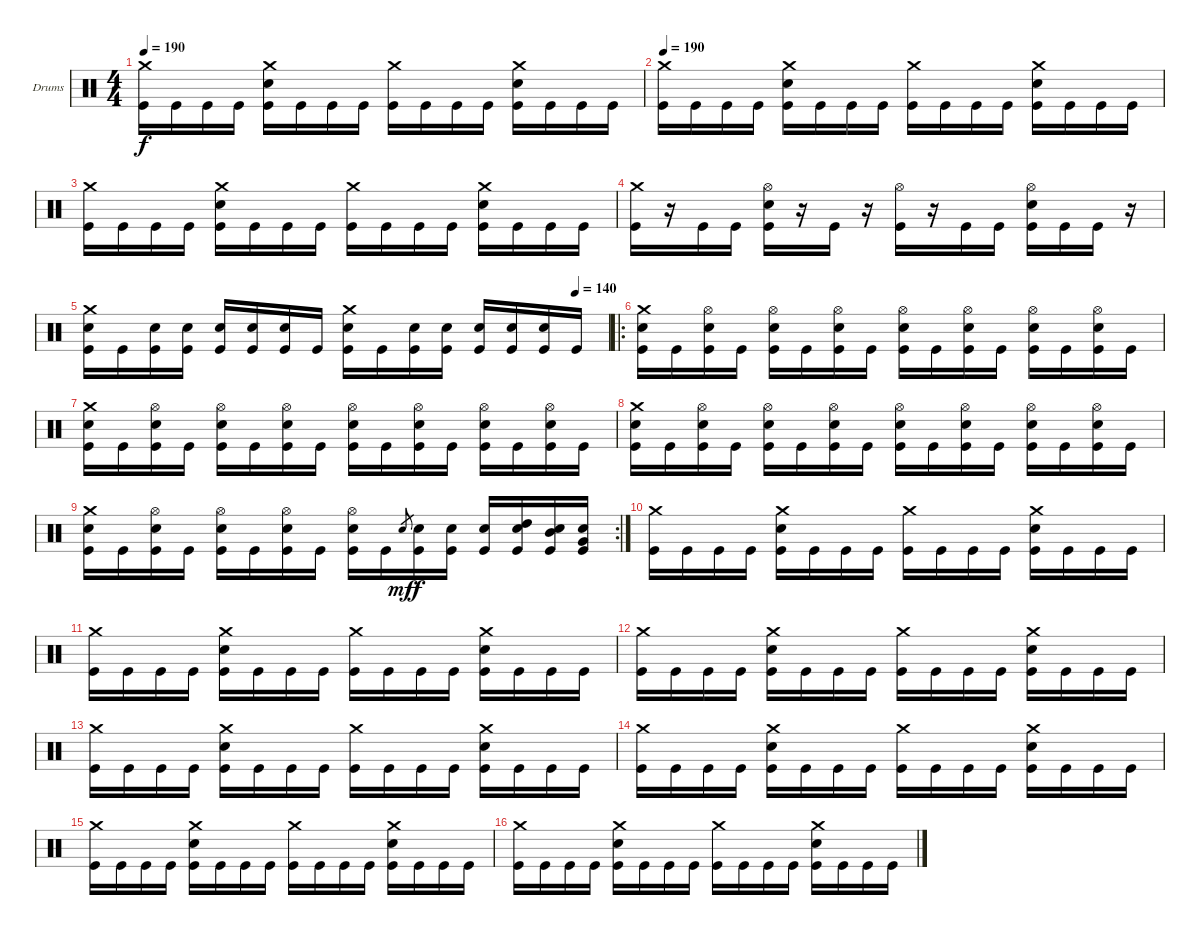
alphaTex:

\bracketExtendMode groupsimilarinstruments
\firstSystemTrackNameOrientation horizontal
\otherSystemsTrackNameOrientation horizontal
\track ("Drumkit" "Drums") {instrument percussion}
\staff {score}
\articulation defaults
\ts (4 4)
\tempo 190
\clef neutral
\ks c
("Crash medium (hit)" "Kick (hit)").16{dy f} "Kick (hit)".16 "Kick (hit)".16 "Kick (hit)".16 ("Crash medium (hit)" "Snare (hit) 2" "Kick (hit)").16 "Kick (hit)".16 "Kick (hit)".16 "Kick (hit)".16 ("Crash medium (hit)" "Kick (hit)").16 "Kick (hit)".16 "Kick (hit)".16 "Kick (hit)".16 ("Crash medium (hit)" "Snare (hit) 2" "Kick (hit)").16 "Kick (hit)".16 "Kick (hit)".16 "Kick (hit)".16 |
\tempo 190
("Crash medium (hit)" "Kick (hit)").16 "Kick (hit)".16 "Kick (hit)".16 "Kick (hit)".16 ("Crash medium (hit)" "Snare (hit) 2" "Kick (hit)").16 "Kick (hit)".16 "Kick (hit)".16 "Kick (hit)".16 ("Crash medium (hit)" "Kick (hit)").16 "Kick (hit)".16 "Kick (hit)".16 "Kick (hit)".16 ("Crash medium (hit)" "Snare (hit) 2" "Kick (hit)").16 "Kick (hit)".16 "Kick (hit)".16 "Kick (hit)".16 |
("Crash medium (hit)" "Kick (hit)").16 "Kick (hit)".16 "Kick (hit)".16 "Kick (hit)".16 ("Crash medium (hit)" "Snare (hit) 2" "Kick (hit)").16 "Kick (hit)".16 "Kick (hit)".16 "Kick (hit)".16 ("Crash medium (hit)" "Kick (hit)").16 "Kick (hit)".16 "Kick (hit)".16 "Kick (hit)".16 ("Crash medium (hit)" "Snare (hit) 2" "Kick (hit)").16 "Kick (hit)".16 "Kick (hit)".16 "Kick (hit)".16 |
("Crash medium (hit)" "Kick (hit)").16 r.16 "Kick (hit)".16 "Kick (hit)".16 ("Hi-Hat (open)" "Snare (hit) 2" "Kick (hit)").16 r.16 "Kick (hit)".16 r.16 ("Hi-Hat (open)" "Kick (hit)").16 r.16 "Kick (hit)".16 "Kick (hit)".16 ("Hi-Hat (open)" "Snare (hit) 2" "Kick (hit)").16 "Kick (hit)".16 "Kick (hit)".16 r.16 |
\tempo (140 0.9375)
("Crash medium (hit)" "Snare (hit) 2" "Kick (hit)").16 "Kick (hit)".16 ("Snare (hit) 2" "Kick (hit)").16 ("Snare (hit) 2" "Kick (hit)").16 ("Snare (hit) 2" "Kick (hit)").16 ("Snare (hit) 2" "Kick (hit)").16 ("Snare (hit) 2" "Kick (hit)").16 "Kick (hit)".16 ("Crash medium (hit)" "Snare (hit) 2" "Kick (hit)").16 "Kick (hit)".16 ("Snare (hit) 2" "Kick (hit)").16 ("Snare (hit) 2" "Kick (hit)").16 ("Snare (hit) 2" "Kick (hit)").16 ("Snare (hit) 2" "Kick (hit)").16 ("Snare (hit) 2" "Kick (hit)").16 "Kick (hit)".16 |
\ro
("Crash medium (hit)" "Snare (hit) 2" "Kick (hit)").16 "Kick (hit)".16 ("Hi-Hat (open)" "Snare (hit) 2" "Kick (hit)").16 "Kick (hit)".16 ("Hi-Hat (open)" "Snare (hit) 2" "Kick (hit)").16 "Kick (hit)".16 ("Hi-Hat (open)" "Snare (hit) 2" "Kick (hit)").16 "Kick (hit)".16 ("Hi-Hat (open)" "Snare (hit) 2" "Kick (hit)").16 "Kick (hit)".16 ("Hi-Hat (open)" "Snare (hit) 2" "Kick (hit)").16 "Kick (hit)".16 ("Hi-Hat (open)" "Snare (hit) 2" "Kick (hit)").16 "Kick (hit)".16 ("Hi-Hat (open)" "Snare (hit) 2" "Kick (hit)").16 "Kick (hit)".16 |
("Crash medium (hit)" "Snare (hit) 2" "Kick (hit)").16 "Kick (hit)".16 ("Hi-Hat (open)" "Snare (hit) 2" "Kick (hit)").16 "Kick (hit)".16 ("Hi-Hat (open)" "Snare (hit) 2" "Kick (hit)").16 "Kick (hit)".16 ("Hi-Hat (open)" "Snare (hit) 2" "Kick (hit)").16 "Kick (hit)".16 ("Hi-Hat (open)" "Snare (hit) 2" "Kick (hit)").16 "Kick (hit)".16 ("Hi-Hat (open)" "Snare (hit) 2" "Kick (hit)").16 "Kick (hit)".16 ("Hi-Hat (open)" "Snare (hit) 2" "Kick (hit)").16 "Kick (hit)".16 ("Hi-Hat (open)" "Snare (hit) 2" "Kick (hit)").16 "Kick (hit)".16 |
("Crash medium (hit)" "Snare (hit) 2" "Kick (hit)").16 "Kick (hit)".16 ("Hi-Hat (open)" "Snare (hit) 2" "Kick (hit)").16 "Kick (hit)".16 ("Hi-Hat (open)" "Snare (hit) 2" "Kick (hit)").16 "Kick (hit)".16 ("Hi-Hat (open)" "Snare (hit) 2" "Kick (hit)").16 "Kick (hit)".16 ("Hi-Hat (open)" "Snare (hit) 2" "Kick (hit)").16 "Kick (hit)".16 ("Hi-Hat (open)" "Snare (hit) 2" "Kick (hit)").16 "Kick (hit)".16 ("Hi-Hat (open)" "Snare (hit) 2" "Kick (hit)").16 "Kick (hit)".16 ("Hi-Hat (open)" "Snare (hit) 2" "Kick (hit)").16 "Kick (hit)".16 |
\rc 2
("Crash medium (hit)" "Snare (hit) 2" "Kick (hit)").16 "Kick (hit)".16 ("Hi-Hat (open)" "Snare (hit) 2" "Kick (hit)").16 "Kick (hit)".16 ("Hi-Hat (open)" "Snare (hit) 2" "Kick (hit)").16 "Kick (hit)".16 ("Hi-Hat (open)" "Snare (hit) 2" "Kick (hit)").16 "Kick (hit)".16 ("Hi-Hat (open)" "Snare (hit) 2" "Kick (hit)").16 "Kick (hit)".16 "Snare (hit) 2".8{gr dy mf} ("Snare (hit) 2" "Kick (hit)").16{dy f} ("Snare (hit) 2" "Kick (hit)").16 ("Snare (hit) 2" "Kick (hit)").16 ("Snare (hit) 2" "High Tom (hit)" "Kick (hit)").16 ("Snare (hit) 2" "Mid Tom (hit)" "Kick (hit)").16 ("Snare (hit) 2" "Very Low Tom (hit)" "Kick (hit)").16 |
("Crash medium (hit)" "Kick (hit)").16 "Kick (hit)".16 "Kick (hit)".16 "Kick (hit)".16 ("Crash medium (hit)" "Snare (hit) 2" "Kick (hit)").16 "Kick (hit)".16 "Kick (hit)".16 "Kick (hit)".16 ("Crash medium (hit)" "Kick (hit)").16 "Kick (hit)".16 "Kick (hit)".16 "Kick (hit)".16 ("Crash medium (hit)" "Snare (hit) 2" "Kick (hit)").16 "Kick (hit)".16 "Kick (hit)".16 "Kick (hit)".16 |
("Crash medium (hit)" "Kick (hit)").16 "Kick (hit)".16 "Kick (hit)".16 "Kick (hit)".16 ("Crash medium (hit)" "Snare (hit) 2" "Kick (hit)").16 "Kick (hit)".16 "Kick (hit)".16 "Kick (hit)".16 ("Crash medium (hit)" "Kick (hit)").16 "Kick (hit)".16 "Kick (hit)".16 "Kick (hit)".16 ("Crash medium (hit)" "Snare (hit) 2" "Kick (hit)").16 "Kick (hit)".16 "Kick (hit)".16 "Kick (hit)".16 |
("Crash medium (hit)" "Kick (hit)").16 "Kick (hit)".16 "Kick (hit)".16 "Kick (hit)".16 ("Crash medium (hit)" "Snare (hit) 2" "Kick (hit)").16 "Kick (hit)".16 "Kick (hit)".16 "Kick (hit)".16 ("Crash medium (hit)" "Kick (hit)").16 "Kick (hit)".16 "Kick (hit)".16 "Kick (hit)".16 ("Crash medium (hit)" "Snare (hit) 2" "Kick (hit)").16 "Kick (hit)".16 "Kick (hit)".16 "Kick (hit)".16 |
("Crash medium (hit)" "Kick (hit)").16 "Kick (hit)".16 "Kick (hit)".16 "Kick (hit)".16 ("Crash medium (hit)" "Snare (hit) 2" "Kick (hit)").16 "Kick (hit)".16 "Kick (hit)".16 "Kick (hit)".16 ("Crash medium (hit)" "Kick (hit)").16 "Kick (hit)".16 "Kick (hit)".16 "Kick (hit)".16 ("Crash medium (hit)" "Snare (hit) 2" "Kick (hit)").16 "Kick (hit)".16 "Kick (hit)".16 "Kick (hit)".16 |
("Crash medium (hit)" "Kick (hit)").16 "Kick (hit)".16 "Kick (hit)".16 "Kick (hit)".16 ("Crash medium (hit)" "Snare (hit) 2" "Kick (hit)").16 "Kick (hit)".16 "Kick (hit)".16 "Kick (hit)".16 ("Crash medium (hit)" "Kick (hit)").16 "Kick (hit)".16 "Kick (hit)".16 "Kick (hit)".16 ("Crash medium (hit)" "Snare (hit) 2" "Kick (hit)").16 "Kick (hit)".16 "Kick (hit)".16 "Kick (hit)".16 |
("Crash medium (hit)" "Kick (hit)").16 "Kick (hit)".16 "Kick (hit)".16 "Kick (hit)".16 ("Crash medium (hit)" "Snare (hit) 2" "Kick (hit)").16 "Kick (hit)".16 "Kick (hit)".16 "Kick (hit)".16 ("Crash medium (hit)" "Kick (hit)").16 "Kick (hit)".16 "Kick (hit)".16 "Kick (hit)".16 ("Crash medium (hit)" "Snare (hit) 2" "Kick (hit)").16 "Kick (hit)".16 "Kick (hit)".16 "Kick (hit)".16 |
("Crash medium (hit)" "Kick (hit)").16 "Kick (hit)".16 "Kick (hit)".16 "Kick (hit)".16 ("Crash medium (hit)" "Snare (hit) 2" "Kick (hit)").16 "Kick (hit)".16 "Kick (hit)".16 "Kick (hit)".16 ("Crash medium (hit)" "Kick (hit)").16 "Kick (hit)".16 "Kick (hit)".16 "Kick (hit)".16 ("Crash medium (hit)" "Snare (hit) 2" "Kick (hit)").16 "Kick (hit)".16 "Kick (hit)".16 "Kick (hit)".16
